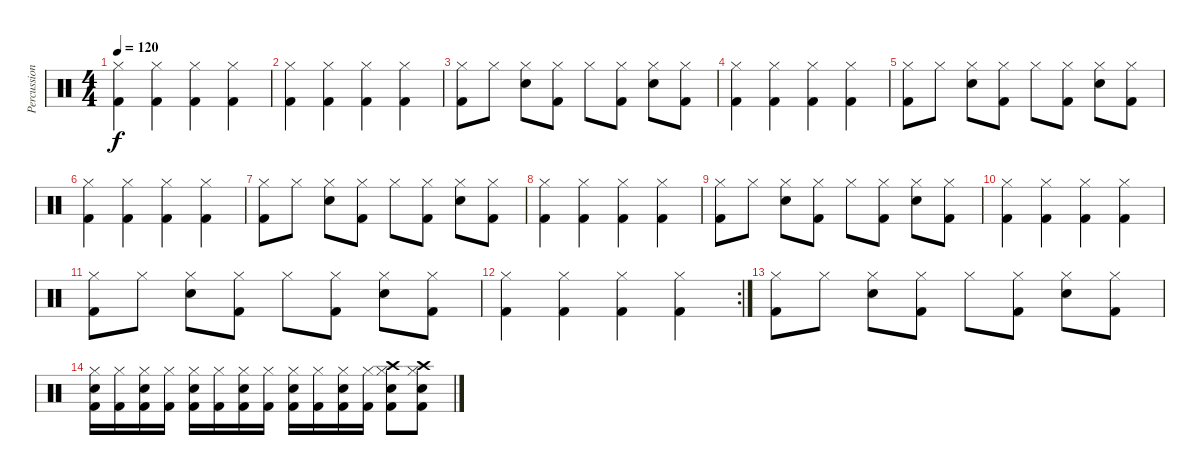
\track ("Percussion" "Percussion") {instrument percussion}
\staff {score}
\articulation defaults
\ts (4 4)
\tempo 120
\clef neutral
\ks c
("Kick (hit) 2" "Hi-Hat (closed)").4{dy f} ("Kick (hit) 2" "Hi-Hat (closed)").4 ("Kick (hit) 2" "Hi-Hat (closed)").4 ("Kick (hit) 2" "Hi-Hat (closed)").4 |
("Kick (hit) 2" "Hi-Hat (closed)").4 ("Kick (hit) 2" "Hi-Hat (closed)").4 ("Kick (hit) 2" "Hi-Hat (closed)").4 ("Kick (hit) 2" "Hi-Hat (closed)").4 |
("Kick (hit) 2" "Hi-Hat (closed)").8 "Hi-Hat (closed)".8 ("Snare (hit) 2" "Hi-Hat (closed)").8 ("Kick (hit) 2" "Hi-Hat (closed)").8 "Hi-Hat (closed)".8 ("Kick (hit) 2" "Hi-Hat (closed)").8 ("Snare (hit) 2" "Hi-Hat (closed)").8 ("Kick (hit) 2" "Hi-Hat (closed)").8 |
("Kick (hit) 2" "Hi-Hat (closed)").4 ("Kick (hit) 2" "Hi-Hat (closed)").4 ("Kick (hit) 2" "Hi-Hat (closed)").4 ("Kick (hit) 2" "Hi-Hat (closed)").4 |
("Kick (hit) 2" "Hi-Hat (closed)").8 "Hi-Hat (closed)".8 ("Snare (hit) 2" "Hi-Hat (closed)").8 ("Kick (hit) 2" "Hi-Hat (closed)").8 "Hi-Hat (closed)".8 ("Kick (hit) 2" "Hi-Hat (closed)").8 ("Snare (hit) 2" "Hi-Hat (closed)").8 ("Kick (hit) 2" "Hi-Hat (closed)").8 |
("Kick (hit) 2" "Hi-Hat (closed)").4 ("Kick (hit) 2" "Hi-Hat (closed)").4 ("Kick (hit) 2" "Hi-Hat (closed)").4 ("Kick (hit) 2" "Hi-Hat (closed)").4 |
("Kick (hit) 2" "Hi-Hat (closed)").8 "Hi-Hat (closed)".8 ("Snare (hit) 2" "Hi-Hat (closed)").8 ("Kick (hit) 2" "Hi-Hat (closed)").8 "Hi-Hat (closed)".8 ("Kick (hit) 2" "Hi-Hat (closed)").8 ("Snare (hit) 2" "Hi-Hat (closed)").8 ("Kick (hit) 2" "Hi-Hat (closed)").8 |
("Kick (hit) 2" "Hi-Hat (closed)").4 ("Kick (hit) 2" "Hi-Hat (closed)").4 ("Kick (hit) 2" "Hi-Hat (closed)").4 ("Kick (hit) 2" "Hi-Hat (closed)").4 |
("Kick (hit) 2" "Hi-Hat (closed)").8 "Hi-Hat (closed)".8 ("Snare (hit) 2" "Hi-Hat (closed)").8 ("Kick (hit) 2" "Hi-Hat (closed)").8 "Hi-Hat (closed)".8 ("Kick (hit) 2" "Hi-Hat (closed)").8 ("Snare (hit) 2" "Hi-Hat (closed)").8 ("Kick (hit) 2" "Hi-Hat (closed)").8 |
("Kick (hit) 2" "Hi-Hat (closed)").4 ("Kick (hit) 2" "Hi-Hat (closed)").4 ("Kick (hit) 2" "Hi-Hat (closed)").4 ("Kick (hit) 2" "Hi-Hat (closed)").4 |
("Kick (hit) 2" "Hi-Hat (closed)").8 "Hi-Hat (closed)".8 ("Snare (hit) 2" "Hi-Hat (closed)").8 ("Kick (hit) 2" "Hi-Hat (closed)").8 "Hi-Hat (closed)".8 ("Kick (hit) 2" "Hi-Hat (closed)").8 ("Snare (hit) 2" "Hi-Hat (closed)").8 ("Kick (hit) 2" "Hi-Hat (closed)").8 |
\rc 2
("Kick (hit) 2" "Hi-Hat (closed)").4 ("Kick (hit) 2" "Hi-Hat (closed)").4 ("Kick (hit) 2" "Hi-Hat (closed)").4 ("Kick (hit) 2" "Hi-Hat (closed)").4 |
("Kick (hit) 2" "Hi-Hat (closed)").8 "Hi-Hat (closed)".8 ("Snare (hit) 2" "Hi-Hat (closed)").8 ("Kick (hit) 2" "Hi-Hat (closed)").8 "Hi-Hat (closed)".8 ("Kick (hit) 2" "Hi-Hat (closed)").8 ("Snare (hit) 2" "Hi-Hat (closed)").8 ("Kick (hit) 2" "Hi-Hat (closed)").8 |
("Kick (hit) 2" "Snare (hit) 2" "Hi-Hat (closed)").16 ("Kick (hit) 2" "Hi-Hat (closed)").16 ("Kick (hit) 2" "Snare (hit) 2" "Hi-Hat (closed)").16 ("Kick (hit) 2" "Hi-Hat (closed)").16 ("Kick (hit) 2" "Snare (hit) 2" "Hi-Hat (closed)").16 ("Kick (hit) 2" "Hi-Hat (closed)").16 ("Kick (hit) 2" "Snare (hit) 2" "Hi-Hat (closed)").16 ("Kick (hit) 2" "Hi-Hat (closed)").16 ("Kick (hit) 2" "Snare (hit) 2" "Hi-Hat (closed)").16 ("Kick (hit) 2" "Hi-Hat (closed)").16 ("Kick (hit) 2" "Snare (hit) 2" "Hi-Hat (closed)").16 ("Kick (hit) 2" "Hi-Hat (closed)").16 ("Kick (hit) 2" "Crash high (hit)" "Snare (hit) 2" "Hi-Hat (closed)").8 ("Kick (hit) 2" "Crash high (hit)" "Snare (hit) 2" "Hi-Hat (closed)").8
